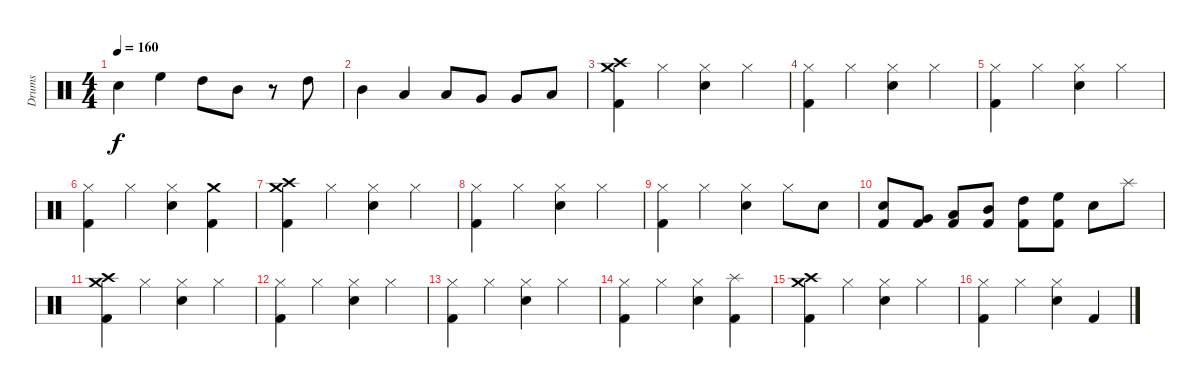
\track ("Drums" "Drums") {instrument percussion}
\staff {score}
\articulation defaults
\ts (4 4)
\tempo 160
\clef neutral
\ks c "Electric Snare (hit)".4{dy f} "High Floor Tom (hit)".4 "High Tom (hit)".8 "Mid Tom (hit)".8
r.8 "High Tom (hit)".8 |
"Mid Tom (hit)".4 "Low Tom (hit)".4 "Low Tom (hit)".8 "Very Low Tom (hit)".8 "Very Low Tom (hit)".8 "Low Floor Tom (hit)".8 |
("Kick (hit) 2" "Crash high (hit)" "Crash medium (hit)").4 "Hi-Hat (closed)".4 ("Hi-Hat (closed)" "Electric Snare (hit)").4 "Hi-Hat (closed)".4 |
("Kick (hit) 2" "Hi-Hat (closed)").4 "Hi-Hat (closed)".4 ("Hi-Hat (closed)" "Electric Snare (hit)").4 "Hi-Hat (closed)".4 |
("Kick (hit) 2" "Hi-Hat (closed)").4 "Hi-Hat (closed)".4 ("Hi-Hat (closed)" "Electric Snare (hit)").4 "Hi-Hat (closed)".4 |
("Kick (hit) 2" "Hi-Hat (closed)").4 "Hi-Hat (closed)".4 ("Hi-Hat (closed)" "Electric Snare (hit)").4 ("Kick (hit) 2" "Crash medium (hit)").4 |
("Kick (hit) 2" "Crash high (hit)" "Crash medium (hit)").4 "Hi-Hat (closed)".4 ("Hi-Hat (closed)" "Electric Snare (hit)").4 "Hi-Hat (closed)".4 |
("Kick (hit) 2" "Hi-Hat (closed)").4 "Hi-Hat (closed)".4 ("Hi-Hat (closed)" "Electric Snare (hit)").4 "Hi-Hat (closed)".4 |
("Kick (hit) 2" "Hi-Hat (closed)").4 "Hi-Hat (closed)".4 ("Hi-Hat (closed)" "Electric Snare (hit)").4 "Hi-Hat (closed)".8 "Electric Snare (hit)".8 |
("Kick (hit) 2" "Electric Snare (hit)").8 ("Kick (hit) 2" "Very Low Tom (hit)").8 ("Kick (hit) 2" "Low Tom (hit)").8 ("Kick (hit) 2" "Mid Tom (hit)").8 ("Kick (hit) 2" "High Tom (hit)").8 ("Kick (hit) 2" "High Floor Tom (hit)").8 "Electric Snare (hit)".8 "Splash (hit)".8 |
("Kick (hit) 2" "Crash high (hit)" "Crash medium (hit)").4 "Hi-Hat (closed)".4 ("Hi-Hat (closed)" "Electric Snare (hit)").4 "Hi-Hat (closed)".4 |
("Kick (hit) 2" "Hi-Hat (closed)").4 "Hi-Hat (closed)".4 ("Hi-Hat (closed)" "Electric Snare (hit)").4 "Hi-Hat (closed)".4 |
("Kick (hit) 2" "Hi-Hat (closed)").4 "Hi-Hat (closed)".4 ("Hi-Hat (closed)" "Electric Snare (hit)").4 "Hi-Hat (closed)".4 |
("Kick (hit) 2" "Hi-Hat (closed)").4 "Hi-Hat (closed)".4 ("Hi-Hat (closed)" "Electric Snare (hit)").4 ("Kick (hit) 2" "Splash (hit)").4 |
("Kick (hit) 2" "Crash high (hit)" "Crash medium (hit)").4 "Hi-Hat (closed)".4 ("Hi-Hat (closed)" "Electric Snare (hit)").4 "Hi-Hat (closed)".4 |
("Kick (hit) 2" "Hi-Hat (closed)").4 "Hi-Hat (closed)".4 ("Hi-Hat (closed)" "Electric Snare (hit)").4 "Kick (hit) 2".4
